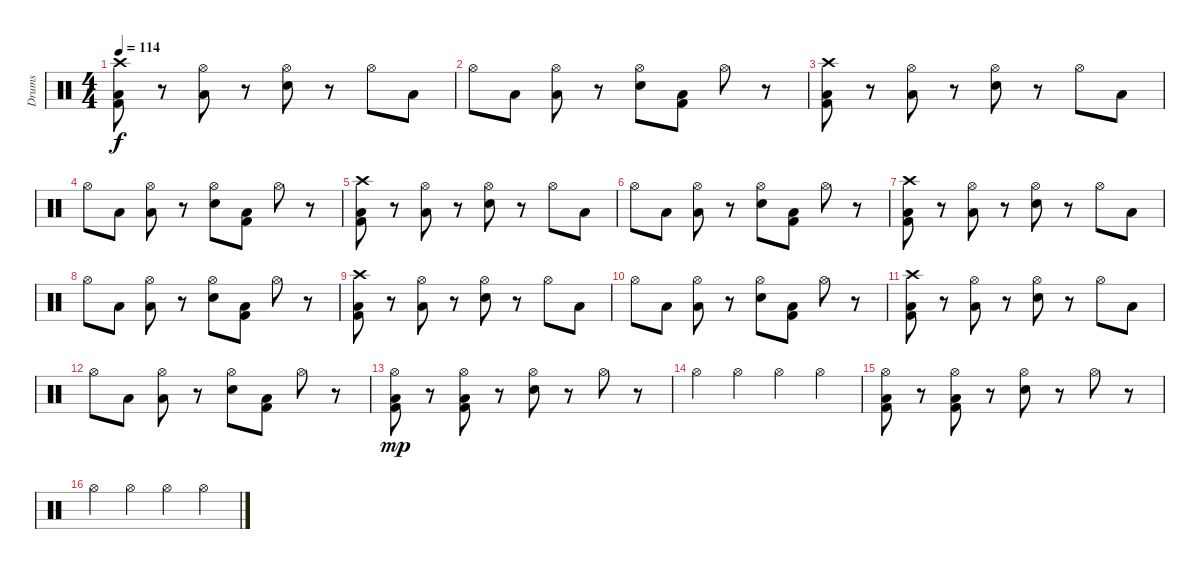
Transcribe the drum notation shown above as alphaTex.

\track ("Drums" "Drums") {instrument percussion}
\staff {score}
\articulation defaults
\ts (4 4)
\tempo 114
\clef neutral
\ks c
("Crash high (hit)" "Kick (hit) 2" "Low Floor Tom (hit)").8{dy f volume 16} r.8 ("Hi-Hat (open)" "Low Floor Tom (hit)").8 r.8 ("Hi-Hat (open)" "Snare (hit) 2").8 r.8 "Hi-Hat (open)".8 "Low Floor Tom (hit)".8 |
"Hi-Hat (open)".8 "Low Floor Tom (hit)".8 ("Hi-Hat (open)" "Low Floor Tom (hit)").8 r.8 ("Hi-Hat (open)" "Snare (hit) 2").8 ("Kick (hit) 2" "Low Floor Tom (hit)").8 "Hi-Hat (open)".8 r.8 |
("Crash high (hit)" "Kick (hit) 2" "Low Floor Tom (hit)").8 r.8 ("Hi-Hat (open)" "Low Floor Tom (hit)").8 r.8 ("Hi-Hat (open)" "Snare (hit) 2").8 r.8 "Hi-Hat (open)".8 "Low Floor Tom (hit)".8 |
"Hi-Hat (open)".8 "Low Floor Tom (hit)".8 ("Hi-Hat (open)" "Low Floor Tom (hit)").8 r.8 ("Hi-Hat (open)" "Snare (hit) 2").8 ("Kick (hit) 2" "Low Floor Tom (hit)").8 "Hi-Hat (open)".8 r.8 |
("Crash high (hit)" "Kick (hit) 2" "Low Floor Tom (hit)").8 r.8 ("Hi-Hat (open)" "Low Floor Tom (hit)").8 r.8 ("Hi-Hat (open)" "Snare (hit) 2").8 r.8 "Hi-Hat (open)".8 "Low Floor Tom (hit)".8 |
"Hi-Hat (open)".8 "Low Floor Tom (hit)".8 ("Hi-Hat (open)" "Low Floor Tom (hit)").8 r.8 ("Hi-Hat (open)" "Snare (hit) 2").8 ("Kick (hit) 2" "Low Floor Tom (hit)").8 "Hi-Hat (open)".8 r.8 |
("Crash high (hit)" "Kick (hit) 2" "Low Floor Tom (hit)").8 r.8 ("Hi-Hat (open)" "Low Floor Tom (hit)").8 r.8 ("Hi-Hat (open)" "Snare (hit) 2").8 r.8 "Hi-Hat (open)".8 "Low Floor Tom (hit)".8 |
"Hi-Hat (open)".8 "Low Floor Tom (hit)".8 ("Hi-Hat (open)" "Low Floor Tom (hit)").8 r.8 ("Hi-Hat (open)" "Snare (hit) 2").8 ("Kick (hit) 2" "Low Floor Tom (hit)").8 "Hi-Hat (open)".8 r.8 |
("Crash high (hit)" "Kick (hit) 2" "Low Floor Tom (hit)").8 r.8 ("Hi-Hat (open)" "Low Floor Tom (hit)").8 r.8 ("Hi-Hat (open)" "Snare (hit) 2").8 r.8 "Hi-Hat (open)".8 "Low Floor Tom (hit)".8 |
"Hi-Hat (open)".8 "Low Floor Tom (hit)".8 ("Hi-Hat (open)" "Low Floor Tom (hit)").8 r.8 ("Hi-Hat (open)" "Snare (hit) 2").8 ("Kick (hit) 2" "Low Floor Tom (hit)").8 "Hi-Hat (open)".8 r.8 |
("Crash high (hit)" "Kick (hit) 2" "Low Floor Tom (hit)").8 r.8 ("Hi-Hat (open)" "Low Floor Tom (hit)").8 r.8 ("Hi-Hat (open)" "Snare (hit) 2").8 r.8 "Hi-Hat (open)".8 "Low Floor Tom (hit)".8 |
"Hi-Hat (open)".8 "Low Floor Tom (hit)".8 ("Hi-Hat (open)" "Low Floor Tom (hit)").8 r.8 ("Hi-Hat (open)" "Snare (hit) 2").8 ("Kick (hit) 2" "Low Floor Tom (hit)").8 "Hi-Hat (open)".8 r.8 |
("Hi-Hat (open)" "Kick (hit) 2" "Low Floor Tom (hit)").8{dy mp} r.8 ("Hi-Hat (open)" "Kick (hit) 2" "Low Floor Tom (hit)").8 r.8 ("Hi-Hat (open)" "Snare (hit) 2").8 r.8 "Hi-Hat (open)".8 r.8 |
"Hi-Hat (open)".4 "Hi-Hat (open)".4 "Hi-Hat (open)".4 "Hi-Hat (open)".4 |
("Hi-Hat (open)" "Kick (hit) 2" "Low Floor Tom (hit)").8 r.8 ("Hi-Hat (open)" "Kick (hit) 2" "Low Floor Tom (hit)").8 r.8 ("Hi-Hat (open)" "Snare (hit) 2").8 r.8 "Hi-Hat (open)".8 r.8 |
"Hi-Hat (open)".4 "Hi-Hat (open)".4 "Hi-Hat (open)".4 "Hi-Hat (open)".4
